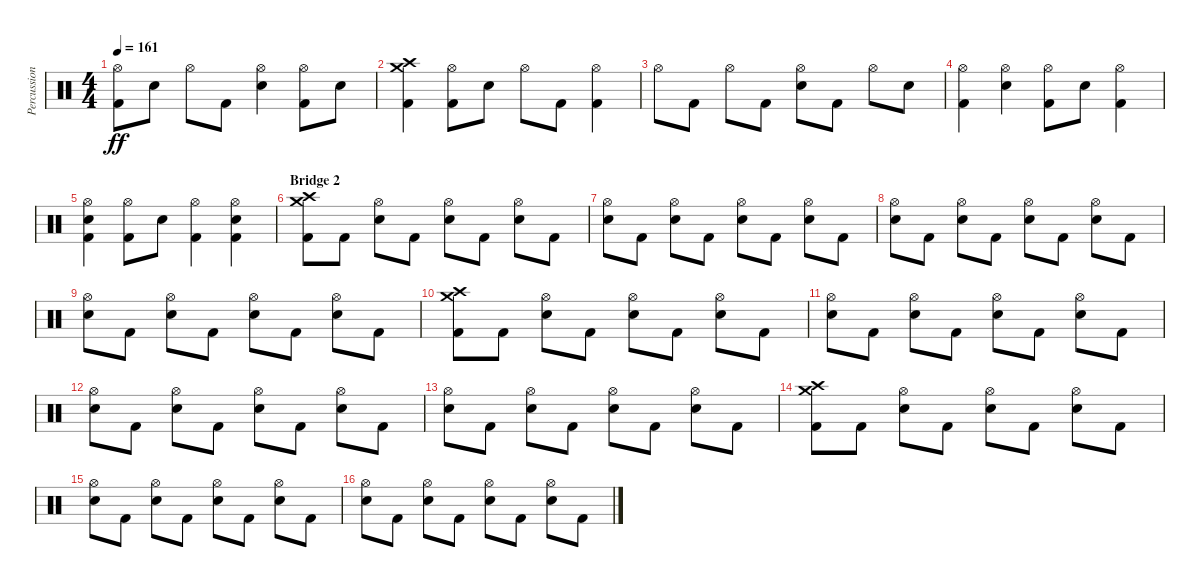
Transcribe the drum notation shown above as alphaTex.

\track ("Percussion" "Percussion") {instrument percussion}
\staff {score}
\articulation defaults
\ts (4 4)
\tempo 161
\clef neutral
\ks c
("Hi-Hat (open)" "Kick (hit) 2").8{dy ff} "Electric Snare (hit)".8 "Hi-Hat (open)".8 "Kick (hit) 2".8 ("Hi-Hat (open)" "Electric Snare (hit)").4 ("Hi-Hat (open)" "Kick (hit) 2").8 "Electric Snare (hit)".8 |
("Crash high (hit)" "Crash medium (hit)" "Kick (hit) 2").4 ("Hi-Hat (open)" "Kick (hit) 2").8 "Electric Snare (hit)".8 "Hi-Hat (open)".8 "Kick (hit) 2".8 ("Hi-Hat (open)" "Kick (hit) 2").4 |
"Hi-Hat (open)".8 "Kick (hit) 2".8 "Hi-Hat (open)".8 "Kick (hit) 2".8 ("Hi-Hat (open)" "Electric Snare (hit)").8 "Kick (hit) 2".8 "Hi-Hat (open)".8 "Electric Snare (hit)".8 |
("Hi-Hat (open)" "Kick (hit) 2").4 ("Hi-Hat (open)" "Electric Snare (hit)").4 ("Hi-Hat (open)" "Kick (hit) 2").8 "Electric Snare (hit)".8 ("Hi-Hat (open)" "Kick (hit) 2").4 |
("Hi-Hat (open)" "Electric Snare (hit)" "Kick (hit) 2").4 ("Hi-Hat (open)" "Kick (hit) 2").8 "Electric Snare (hit)".8 ("Hi-Hat (open)" "Kick (hit) 2").4 ("Hi-Hat (open)" "Electric Snare (hit)" "Kick (hit) 2").4 |
\section ("" "Bridge 2")
("Crash high (hit)" "Crash medium (hit)" "Kick (hit) 2").8 "Kick (hit) 2".8 ("Hi-Hat (open)" "Electric Snare (hit)").8 "Kick (hit) 2".8 ("Hi-Hat (open)" "Electric Snare (hit)").8 "Kick (hit) 2".8 ("Hi-Hat (open)" "Electric Snare (hit)").8 "Kick (hit) 2".8 |
("Hi-Hat (open)" "Electric Snare (hit)").8 "Kick (hit) 2".8 ("Hi-Hat (open)" "Electric Snare (hit)").8 "Kick (hit) 2".8 ("Hi-Hat (open)" "Electric Snare (hit)").8 "Kick (hit) 2".8 ("Hi-Hat (open)" "Electric Snare (hit)").8 "Kick (hit) 2".8 |
("Hi-Hat (open)" "Electric Snare (hit)").8 "Kick (hit) 2".8 ("Hi-Hat (open)" "Electric Snare (hit)").8 "Kick (hit) 2".8 ("Hi-Hat (open)" "Electric Snare (hit)").8 "Kick (hit) 2".8 ("Hi-Hat (open)" "Electric Snare (hit)").8 "Kick (hit) 2".8 |
("Hi-Hat (open)" "Electric Snare (hit)").8 "Kick (hit) 2".8 ("Hi-Hat (open)" "Electric Snare (hit)").8 "Kick (hit) 2".8 ("Hi-Hat (open)" "Electric Snare (hit)").8 "Kick (hit) 2".8 ("Hi-Hat (open)" "Electric Snare (hit)").8 "Kick (hit) 2".8 |
("Crash high (hit)" "Crash medium (hit)" "Kick (hit) 2").8 "Kick (hit) 2".8 ("Hi-Hat (open)" "Electric Snare (hit)").8 "Kick (hit) 2".8 ("Hi-Hat (open)" "Electric Snare (hit)").8 "Kick (hit) 2".8 ("Hi-Hat (open)" "Electric Snare (hit)").8 "Kick (hit) 2".8 |
("Hi-Hat (open)" "Electric Snare (hit)").8 "Kick (hit) 2".8 ("Hi-Hat (open)" "Electric Snare (hit)").8 "Kick (hit) 2".8 ("Hi-Hat (open)" "Electric Snare (hit)").8 "Kick (hit) 2".8 ("Hi-Hat (open)" "Electric Snare (hit)").8 "Kick (hit) 2".8 |
("Hi-Hat (open)" "Electric Snare (hit)").8 "Kick (hit) 2".8 ("Hi-Hat (open)" "Electric Snare (hit)").8 "Kick (hit) 2".8 ("Hi-Hat (open)" "Electric Snare (hit)").8 "Kick (hit) 2".8 ("Hi-Hat (open)" "Electric Snare (hit)").8 "Kick (hit) 2".8 |
("Hi-Hat (open)" "Electric Snare (hit)").8 "Kick (hit) 2".8 ("Hi-Hat (open)" "Electric Snare (hit)").8 "Kick (hit) 2".8 ("Hi-Hat (open)" "Electric Snare (hit)").8 "Kick (hit) 2".8 ("Hi-Hat (open)" "Electric Snare (hit)").8 "Kick (hit) 2".8 |
("Crash high (hit)" "Crash medium (hit)" "Kick (hit) 2").8 "Kick (hit) 2".8 ("Hi-Hat (open)" "Electric Snare (hit)").8 "Kick (hit) 2".8 ("Hi-Hat (open)" "Electric Snare (hit)").8 "Kick (hit) 2".8 ("Hi-Hat (open)" "Electric Snare (hit)").8 "Kick (hit) 2".8 |
("Hi-Hat (open)" "Electric Snare (hit)").8 "Kick (hit) 2".8 ("Hi-Hat (open)" "Electric Snare (hit)").8 "Kick (hit) 2".8 ("Hi-Hat (open)" "Electric Snare (hit)").8 "Kick (hit) 2".8 ("Hi-Hat (open)" "Electric Snare (hit)").8 "Kick (hit) 2".8 |
("Hi-Hat (open)" "Electric Snare (hit)").8 "Kick (hit) 2".8 ("Hi-Hat (open)" "Electric Snare (hit)").8 "Kick (hit) 2".8 ("Hi-Hat (open)" "Electric Snare (hit)").8 "Kick (hit) 2".8 ("Hi-Hat (open)" "Electric Snare (hit)").8 "Kick (hit) 2".8
